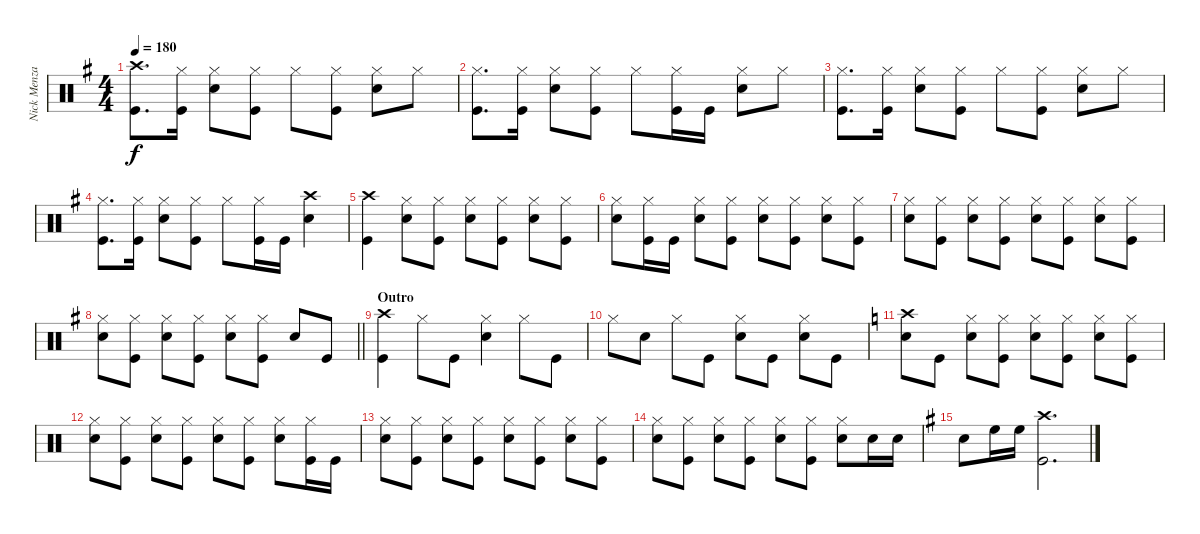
\track ("Nick Menza" "Nick Menza") {instrument percussion}
\staff {score}
\articulation defaults
\ts (4 4)
\tempo 180
\clef neutral
\ks g
("Kick (hit)" "Crash high (hit)").8{d dy f} ("Kick (hit)" "Hi-Hat (closed)").16 ("Hi-Hat (closed)" "Snare (hit) 2").8 ("Kick (hit)" "Hi-Hat (closed)").8 "Hi-Hat (closed)".8 ("Kick (hit)" "Hi-Hat (closed)").8 ("Hi-Hat (closed)" "Snare (hit) 2").8 "Hi-Hat (closed)".8 |
("Kick (hit)" "Hi-Hat (closed)").8{d} ("Kick (hit)" "Hi-Hat (closed)").16 ("Hi-Hat (closed)" "Snare (hit) 2").8 ("Kick (hit)" "Hi-Hat (closed)").8 "Hi-Hat (closed)".8 ("Kick (hit)" "Hi-Hat (closed)").16 "Kick (hit)".16 ("Hi-Hat (closed)" "Snare (hit) 2").8 "Hi-Hat (closed)".8 |
("Kick (hit)" "Hi-Hat (closed)").8{d} ("Kick (hit)" "Hi-Hat (closed)").16 ("Hi-Hat (closed)" "Snare (hit) 2").8 ("Kick (hit)" "Hi-Hat (closed)").8 "Hi-Hat (closed)".8 ("Kick (hit)" "Hi-Hat (closed)").8 ("Hi-Hat (closed)" "Snare (hit) 2").8 "Hi-Hat (closed)".8 |
("Kick (hit)" "Hi-Hat (closed)").8{d} ("Kick (hit)" "Hi-Hat (closed)").16 ("Hi-Hat (closed)" "Snare (hit) 2").8 ("Kick (hit)" "Hi-Hat (closed)").8 "Hi-Hat (closed)".8 ("Kick (hit)" "Hi-Hat (closed)").16 "Kick (hit)".16 ("Crash high (hit)" "Snare (hit) 2").4 |
("Kick (hit)" "Crash high (hit)").4 ("Hi-Hat (closed)" "Snare (hit) 2").8 ("Kick (hit)" "Hi-Hat (closed)").8 ("Hi-Hat (closed)" "Snare (hit) 2").8 ("Kick (hit)" "Hi-Hat (closed)").8 ("Hi-Hat (closed)" "Snare (hit) 2").8 ("Kick (hit)" "Hi-Hat (closed)").8 |
("Hi-Hat (closed)" "Snare (hit) 2").8 ("Kick (hit)" "Hi-Hat (closed)").16 "Kick (hit)".16 ("Hi-Hat (closed)" "Snare (hit) 2").8 ("Kick (hit)" "Hi-Hat (closed)").8 ("Hi-Hat (closed)" "Snare (hit) 2").8 ("Kick (hit)" "Hi-Hat (closed)").8 ("Hi-Hat (closed)" "Snare (hit) 2").8 ("Kick (hit)" "Hi-Hat (closed)").8 |
("Hi-Hat (closed)" "Snare (hit) 2").8 ("Kick (hit)" "Hi-Hat (closed)").8 ("Hi-Hat (closed)" "Snare (hit) 2").8 ("Kick (hit)" "Hi-Hat (closed)").8 ("Hi-Hat (closed)" "Snare (hit) 2").8 ("Kick (hit)" "Hi-Hat (closed)").8 ("Hi-Hat (closed)" "Snare (hit) 2").8 ("Kick (hit)" "Hi-Hat (closed)").8 |
\barLineRight lightlight
("Hi-Hat (closed)" "Snare (hit) 2").8 ("Kick (hit)" "Hi-Hat (closed)").8 ("Hi-Hat (closed)" "Snare (hit) 2").8 ("Kick (hit)" "Hi-Hat (closed)").8 ("Hi-Hat (closed)" "Snare (hit) 2").8 ("Kick (hit)" "Hi-Hat (closed)").8 "Snare (hit) 2".8 "Kick (hit)".8 |
\section ("" "Outro")
("Kick (hit)" "Crash high (hit)").4 "Hi-Hat (closed)".8 "Kick (hit)".8 ("Hi-Hat (closed)" "Snare (hit) 2").4 "Hi-Hat (closed)".8 "Kick (hit)".8 |
"Hi-Hat (closed)".8 "Snare (hit) 2".8 "Hi-Hat (closed)".8 "Kick (hit)".8 ("Hi-Hat (closed)" "Snare (hit) 2").8 "Kick (hit)".8 ("Hi-Hat (closed)" "Snare (hit) 2").8 "Kick (hit)".8 |
\ks c
("Crash high (hit)" "Snare (hit) 2").8 "Kick (hit)".8 ("Hi-Hat (closed)" "Snare (hit) 2").8 ("Kick (hit)" "Hi-Hat (closed)").8 ("Hi-Hat (closed)" "Snare (hit) 2").8 ("Kick (hit)" "Hi-Hat (closed)").8 ("Hi-Hat (closed)" "Snare (hit) 2").8 ("Kick (hit)" "Hi-Hat (closed)").8 |
("Hi-Hat (closed)" "Snare (hit) 2").8 ("Kick (hit)" "Hi-Hat (closed)").8 ("Hi-Hat (closed)" "Snare (hit) 2").8 ("Kick (hit)" "Hi-Hat (closed)").8 ("Hi-Hat (closed)" "Snare (hit) 2").8 ("Kick (hit)" "Hi-Hat (closed)").8 ("Hi-Hat (closed)" "Snare (hit) 2").8 ("Kick (hit)" "Hi-Hat (closed)").16 "Kick (hit)".16 |
("Hi-Hat (closed)" "Snare (hit) 2").8 ("Kick (hit)" "Hi-Hat (closed)").8 ("Hi-Hat (closed)" "Snare (hit) 2").8 ("Kick (hit)" "Hi-Hat (closed)").8 ("Hi-Hat (closed)" "Snare (hit) 2").8 ("Kick (hit)" "Hi-Hat (closed)").8 ("Hi-Hat (closed)" "Snare (hit) 2").8 ("Kick (hit)" "Hi-Hat (closed)").8 |
("Hi-Hat (closed)" "Snare (hit) 2").8 ("Kick (hit)" "Hi-Hat (closed)").8 ("Hi-Hat (closed)" "Snare (hit) 2").8 ("Kick (hit)" "Hi-Hat (closed)").8 ("Hi-Hat (closed)" "Snare (hit) 2").8 ("Kick (hit)" "Hi-Hat (closed)").8 ("Hi-Hat (closed)" "Snare (hit) 2").8 "Snare (hit) 2".16 "Snare (hit) 2".16 |
\ks g "Snare (hit) 2".8 "High Floor Tom (hit)".16 "High Floor Tom (hit)".16
("Kick (hit)" "Crash high (hit)").2{d}
